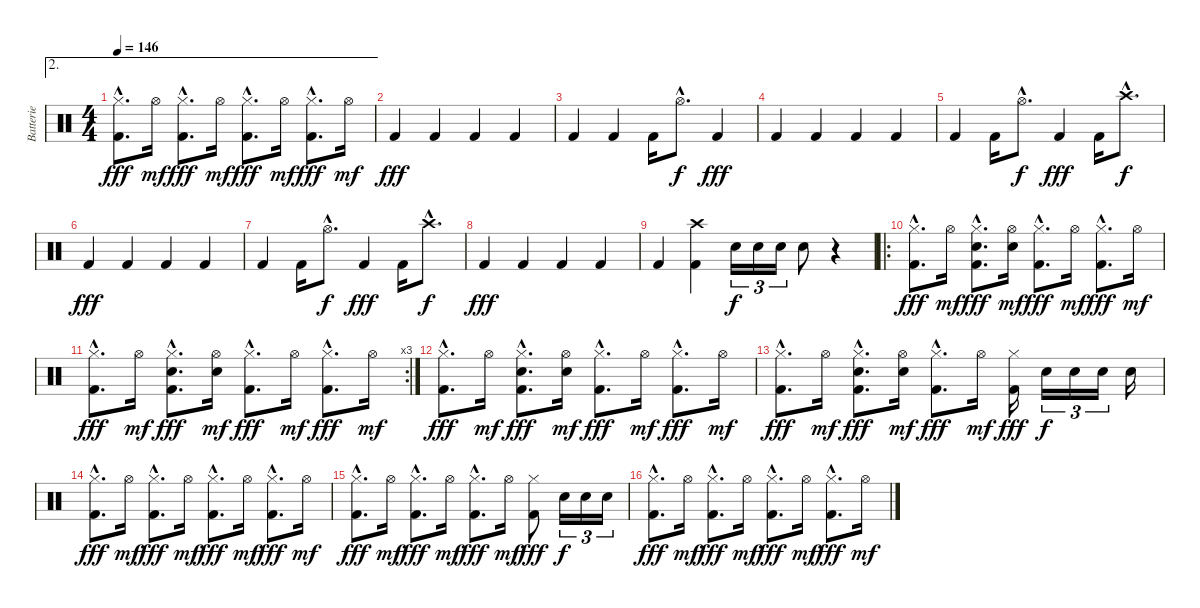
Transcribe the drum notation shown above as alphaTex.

\track ("Batterie" "Batterie") {instrument percussion}
\staff {score}
\articulation defaults
\ae 2
\ts (4 4)
\tempo 146
\clef neutral
\ks c
("Hi-Hat (closed)"{hac} "Kick (hit) 2"{hac}).8{d dy fff} "Hi-Hat (open)".16{dy mf} ("Hi-Hat (closed)"{hac} "Kick (hit) 2"{hac}).8{d dy fff} "Hi-Hat (open)".16{dy mf} ("Hi-Hat (closed)"{hac} "Kick (hit) 2"{hac}).8{d dy fff} "Hi-Hat (open)".16{dy mf} ("Hi-Hat (closed)"{hac} "Kick (hit) 2"{hac}).8{d dy fff} "Hi-Hat (open)".16{dy mf} |
"Kick (hit) 2".4{dy fff} "Kick (hit) 2".4 "Kick (hit) 2".4 "Kick (hit) 2".4 |
"Kick (hit) 2".4 "Kick (hit) 2".4 "Kick (hit) 2".16 "Hi-Hat (open)"{hac}.8{d dy f} "Kick (hit) 2".4{dy fff} |
"Kick (hit) 2".4 "Kick (hit) 2".4 "Kick (hit) 2".4 "Kick (hit) 2".4 |
"Kick (hit) 2".4 "Kick (hit) 2".16 "Hi-Hat (open)"{hac}.8{d dy f} "Kick (hit) 2".4{dy fff} "Kick (hit) 2".16 "Crash high (hit)"{hac}.8{d dy f} |
"Kick (hit) 2".4{dy fff} "Kick (hit) 2".4 "Kick (hit) 2".4 "Kick (hit) 2".4 |
"Kick (hit) 2".4 "Kick (hit) 2".16 "Hi-Hat (open)"{hac}.8{d dy f} "Kick (hit) 2".4{dy fff} "Kick (hit) 2".16 "Crash high (hit)"{hac}.8{d dy f} |
"Kick (hit) 2".4{dy fff} "Kick (hit) 2".4 "Kick (hit) 2".4 "Kick (hit) 2".4 |
"Kick (hit) 2".4 ("Crash high (hit)" "Kick (hit) 2").4 "Electric Snare (hit)".16{tu (3 2) dy f} "Electric Snare (hit)".16{tu (3 2)} "Electric Snare (hit)".16{tu (3 2)} "Electric Snare (hit)".8 r.4 |
\ro
("Hi-Hat (closed)"{hac} "Kick (hit) 2"{hac}).8{d dy fff} "Hi-Hat (open)".16{dy mf} ("Hi-Hat (closed)"{hac} "Kick (hit) 2"{hac} "Electric Snare (hit)"{hac}).8{d dy fff} ("Hi-Hat (open)" "Electric Snare (hit)").16{dy mf} ("Hi-Hat (closed)"{hac} "Kick (hit) 2"{hac}).8{d dy fff} "Hi-Hat (open)".16{dy mf} ("Hi-Hat (closed)"{hac} "Kick (hit) 2"{hac}).8{d dy fff} "Hi-Hat (open)".16{dy mf} |
\rc 3
("Hi-Hat (closed)"{hac} "Kick (hit) 2"{hac}).8{d dy fff} "Hi-Hat (open)".16{dy mf} ("Hi-Hat (closed)"{hac} "Kick (hit) 2"{hac} "Electric Snare (hit)"{hac}).8{d dy fff} ("Hi-Hat (open)" "Electric Snare (hit)").16{dy mf} ("Hi-Hat (closed)"{hac} "Kick (hit) 2"{hac}).8{d dy fff} "Hi-Hat (open)".16{dy mf} ("Hi-Hat (closed)"{hac} "Kick (hit) 2"{hac}).8{d dy fff} "Hi-Hat (open)".16{dy mf} |
("Hi-Hat (closed)"{hac} "Kick (hit) 2"{hac}).8{d dy fff} "Hi-Hat (open)".16{dy mf} ("Hi-Hat (closed)"{hac} "Kick (hit) 2"{hac} "Electric Snare (hit)"{hac}).8{d dy fff} ("Hi-Hat (open)" "Electric Snare (hit)").16{dy mf} ("Hi-Hat (closed)"{hac} "Kick (hit) 2"{hac}).8{d dy fff} "Hi-Hat (open)".16{dy mf} ("Hi-Hat (closed)"{hac} "Kick (hit) 2"{hac}).8{d dy fff} "Hi-Hat (open)".16{dy mf} |
("Hi-Hat (closed)"{hac} "Kick (hit) 2"{hac}).8{d dy fff} "Hi-Hat (open)".16{dy mf} ("Hi-Hat (closed)"{hac} "Kick (hit) 2"{hac} "Electric Snare (hit)"{hac}).8{d dy fff} ("Hi-Hat (open)" "Electric Snare (hit)").16{dy mf} ("Hi-Hat (closed)"{hac} "Kick (hit) 2"{hac}).8{d dy fff} "Hi-Hat (open)".16{dy mf} ("Hi-Hat (closed)" "Kick (hit) 2").16{dy fff} "Electric Snare (hit)".16{tu (3 2) dy f} "Electric Snare (hit)".16{tu (3 2)} "Electric Snare (hit)".16{tu (3 2)} "Electric Snare (hit)".16 |
("Hi-Hat (closed)"{hac} "Kick (hit) 2"{hac}).8{d dy fff} "Hi-Hat (open)".16{dy mf} ("Hi-Hat (closed)"{hac} "Kick (hit) 2"{hac}).8{d dy fff} "Hi-Hat (open)".16{dy mf} ("Hi-Hat (closed)"{hac} "Kick (hit) 2"{hac}).8{d dy fff} "Hi-Hat (open)".16{dy mf} ("Hi-Hat (closed)"{hac} "Kick (hit) 2"{hac}).8{d dy fff} "Hi-Hat (open)".16{dy mf} |
("Hi-Hat (closed)"{hac} "Kick (hit) 2"{hac}).8{d dy fff} "Hi-Hat (open)".16{dy mf} ("Hi-Hat (closed)"{hac} "Kick (hit) 2"{hac}).8{d dy fff} "Hi-Hat (open)".16{dy mf} ("Hi-Hat (closed)"{hac} "Kick (hit) 2"{hac}).8{d dy fff} "Hi-Hat (open)".16{dy mf} ("Hi-Hat (closed)" "Kick (hit) 2").8{dy fff} "Electric Snare (hit)".16{tu (3 2) dy f} "Electric Snare (hit)".16{tu (3 2)} "Electric Snare (hit)".16{tu (3 2)} |
("Hi-Hat (closed)"{hac} "Kick (hit) 2"{hac}).8{d dy fff} "Hi-Hat (open)".16{dy mf} ("Hi-Hat (closed)"{hac} "Kick (hit) 2"{hac}).8{d dy fff} "Hi-Hat (open)".16{dy mf} ("Hi-Hat (closed)"{hac} "Kick (hit) 2"{hac}).8{d dy fff} "Hi-Hat (open)".16{dy mf} ("Hi-Hat (closed)"{hac} "Kick (hit) 2"{hac}).8{d dy fff} "Hi-Hat (open)".16{dy mf}
